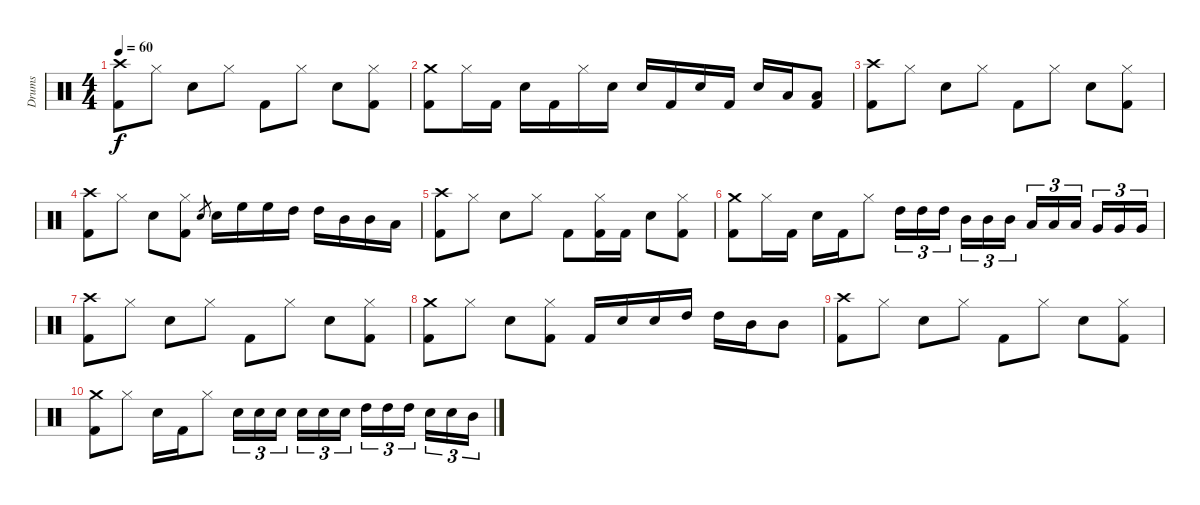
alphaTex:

\track ("Drums " "Drums ") {instrument percussion}
\staff {score}
\articulation defaults
\ts (4 4)
\tempo 60
\clef neutral
\ks aminor
("Crash high (hit)" "Kick (hit) 2").8{dy f} "Hi-Hat (closed)".8 "Snare (hit) 2".8 "Hi-Hat (closed)".8 "Kick (hit) 2".8 "Hi-Hat (closed)".8 "Snare (hit) 2".8 ("Hi-Hat (closed)" "Kick (hit) 2").8 |
("Crash medium (hit)" "Kick (hit) 2").8 "Hi-Hat (closed)".16 "Kick (hit) 2".16 "Snare (hit) 2".16 "Kick (hit) 2".16 "Hi-Hat (closed)".16 "Snare (hit) 2".16 "Snare (hit) 2".16 "Kick (hit) 2".16 "Snare (hit) 2".16 "Kick (hit) 2".16 "Snare (hit) 2".16 "Low Tom (hit)".16 ("Low Tom (hit)" "Kick (hit) 2").8 |
("Crash high (hit)" "Kick (hit) 2").8 "Hi-Hat (closed)".8 "Snare (hit) 2".8 "Hi-Hat (closed)".8 "Kick (hit) 2".8 "Hi-Hat (closed)".8 "Snare (hit) 2".8 ("Hi-Hat (closed)" "Kick (hit) 2").8 |
("Crash high (hit)" "Kick (hit) 2").8 "Hi-Hat (closed)".8 "Snare (hit) 2".8 ("Hi-Hat (closed)" "Kick (hit) 2").8 "Snare (hit) 2".8{gr} "Snare (hit) 2".16 "High Floor Tom (hit)".16 "High Floor Tom (hit)".16 "High Tom (hit)".16 "High Tom (hit)".16 "Mid Tom (hit)".16 "Mid Tom (hit)".16 "Low Tom (hit)".16 |
("Crash high (hit)" "Kick (hit) 2").8 "Hi-Hat (closed)".8 "Snare (hit) 2".8 "Hi-Hat (closed)".8 "Kick (hit) 2".8 ("Hi-Hat (closed)" "Kick (hit) 2").16 "Kick (hit) 2".16 "Snare (hit) 2".8 ("Hi-Hat (closed)" "Kick (hit) 2").8 |
("Crash medium (hit)" "Kick (hit) 2").8 "Hi-Hat (closed)".16 "Kick (hit) 2".16 "Snare (hit) 2".16 "Kick (hit) 2".16 "Hi-Hat (closed)".8 "High Tom (hit)".16{tu (3 2)} "High Tom (hit)".16{tu (3 2)} "High Tom (hit)".16{tu (3 2)} "Mid Tom (hit)".16{tu (3 2)} "Mid Tom (hit)".16{tu (3 2)} "Mid Tom (hit)".16{tu (3 2)} "Low Tom (hit)".16{tu (3 2)} "Low Tom (hit)".16{tu (3 2)} "Low Tom (hit)".16{tu (3 2)} "Very Low Tom (hit)".16{tu (3 2)} "Very Low Tom (hit)".16{tu (3 2)} "Very Low Tom (hit)".16{tu (3 2)} |
("Crash high (hit)" "Kick (hit) 2").8 "Hi-Hat (closed)".8 "Snare (hit) 2".8 "Hi-Hat (closed)".8 "Kick (hit) 2".8 "Hi-Hat (closed)".8 "Snare (hit) 2".8 ("Hi-Hat (closed)" "Kick (hit) 2").8 |
("Crash medium (hit)" "Kick (hit) 2").8 "Hi-Hat (closed)".8 "Snare (hit) 2".8 ("Hi-Hat (closed)" "Kick (hit) 2").8 "Kick (hit) 2".16 "Snare (hit) 2".16 "Snare (hit) 2".16 "High Tom (hit)".16 "High Tom (hit)".16 "Mid Tom (hit)".16 "Mid Tom (hit)".8 |
("Crash high (hit)" "Kick (hit) 2").8 "Hi-Hat (closed)".8 "Snare (hit) 2".8 "Hi-Hat (closed)".8 "Kick (hit) 2".8 "Hi-Hat (closed)".8 "Snare (hit) 2".8 ("Hi-Hat (closed)" "Kick (hit) 2").8 |
("Crash medium (hit)" "Kick (hit) 2").8 "Hi-Hat (closed)".8 "Snare (hit) 2".16 "Kick (hit) 2".16 "Hi-Hat (closed)".8 "Snare (hit) 2".16{tu (3 2)} "Snare (hit) 2".16{tu (3 2)} "Snare (hit) 2".16{tu (3 2)} "Snare (hit) 2".16{tu (3 2)} "Snare (hit) 2".16{tu (3 2)} "Snare (hit) 2".16{tu (3 2)} "High Tom (hit)".16{tu (3 2)} "High Tom (hit)".16{tu (3 2)} "High Tom (hit)".16{tu (3 2)} "Snare (hit) 2".16{tu (3 2)} "Snare (hit) 2".16{tu (3 2)} "Mid Tom (hit)".16{tu (3 2)}
